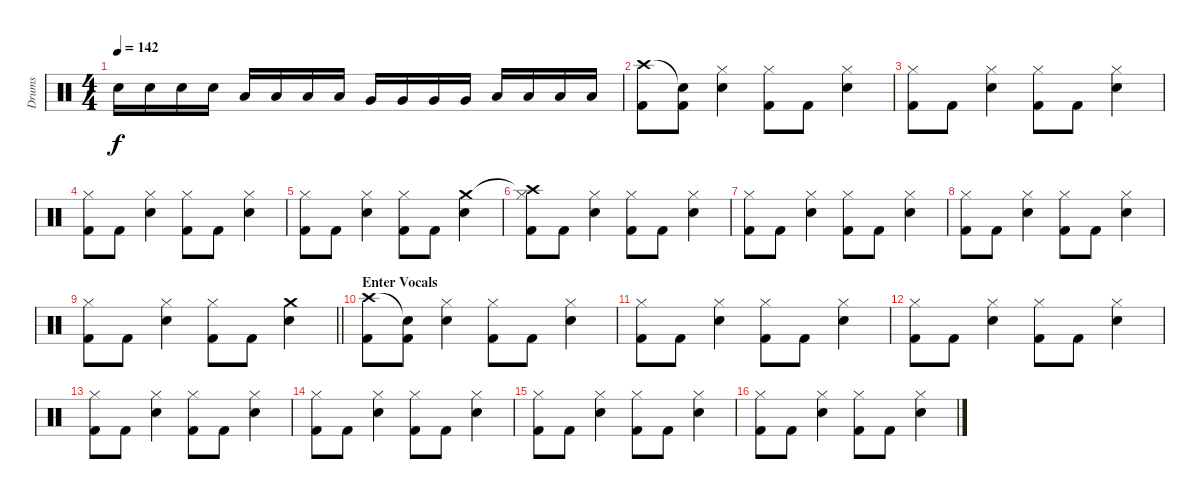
\track ("Drums" "Drums") {instrument percussion}
\staff {score}
\articulation defaults
\ts (4 4)
\tempo 142
\clef neutral
\ks c "Snare (hit) 2".16{dy f volume 12} "Snare (hit) 2".16 "Snare (hit) 2".16 "Snare (hit) 2".16 "Low Tom (hit)".16 "Low Tom (hit)".16 "Low Tom (hit)".16 "Low Tom (hit)".16 "Very Low Tom (hit)".16 "Very Low Tom (hit)".16 "Very Low Tom (hit)".16 "Very Low Tom (hit)".16 "Low Floor Tom (hit)".16 "Low Floor Tom (hit)".16 "Low Floor Tom (hit)".16 "Low Floor Tom (hit)".16
|
("Crash high (hit)" "Kick (hit) 2").8 ("Snare (hit)"{t} "Kick (hit) 2").8 ("Hi-Hat (closed)" "Snare (hit) 2").4 ("Hi-Hat (closed)" "Kick (hit) 2").8 "Kick (hit) 2".8 ("Hi-Hat (closed)" "Snare (hit) 2").4 |
("Hi-Hat (closed)" "Kick (hit) 2").8 "Kick (hit) 2".8 ("Hi-Hat (closed)" "Snare (hit) 2").4 ("Hi-Hat (closed)" "Kick (hit) 2").8 "Kick (hit) 2".8 ("Hi-Hat (closed)" "Snare (hit) 2").4 |
("Hi-Hat (closed)" "Kick (hit) 2").8 "Kick (hit) 2".8 ("Hi-Hat (closed)" "Snare (hit) 2").4 ("Hi-Hat (closed)" "Kick (hit) 2").8 "Kick (hit) 2".8 ("Hi-Hat (closed)" "Snare (hit) 2").4 |
("Hi-Hat (closed)" "Kick (hit) 2").8 "Kick (hit) 2".8 ("Hi-Hat (closed)" "Snare (hit) 2").4 ("Hi-Hat (closed)" "Kick (hit) 2").8 "Kick (hit) 2".8 ("Crash medium (hit)" "Snare (hit) 2").4 |
("Crash high (hit)"{t} "Hi-Hat (closed)" "Kick (hit) 2").8 "Kick (hit) 2".8 ("Hi-Hat (closed)" "Snare (hit) 2").4 ("Hi-Hat (closed)" "Kick (hit) 2").8 "Kick (hit) 2".8 ("Hi-Hat (closed)" "Snare (hit) 2").4 |
("Hi-Hat (closed)" "Kick (hit) 2").8 "Kick (hit) 2".8 ("Hi-Hat (closed)" "Snare (hit) 2").4 ("Hi-Hat (closed)" "Kick (hit) 2").8 "Kick (hit) 2".8 ("Hi-Hat (closed)" "Snare (hit) 2").4 |
("Hi-Hat (closed)" "Kick (hit) 2").8 "Kick (hit) 2".8 ("Hi-Hat (closed)" "Snare (hit) 2").4 ("Hi-Hat (closed)" "Kick (hit) 2").8 "Kick (hit) 2".8 ("Hi-Hat (closed)" "Snare (hit) 2").4 |
\barLineRight lightlight
("Hi-Hat (closed)" "Kick (hit) 2").8 "Kick (hit) 2".8 ("Hi-Hat (closed)" "Snare (hit) 2").4 ("Hi-Hat (closed)" "Kick (hit) 2").8 "Kick (hit) 2".8 ("Crash medium (hit)" "Snare (hit) 2").4 |
\section ("" "Enter Vocals")
("Crash high (hit)" "Kick (hit) 2").8 ("Snare (hit)"{t} "Kick (hit) 2").8 ("Hi-Hat (closed)" "Snare (hit) 2").4 ("Hi-Hat (closed)" "Kick (hit) 2").8 "Kick (hit) 2".8 ("Hi-Hat (closed)" "Snare (hit) 2").4 |
("Hi-Hat (closed)" "Kick (hit) 2").8 "Kick (hit) 2".8 ("Hi-Hat (closed)" "Snare (hit) 2").4 ("Hi-Hat (closed)" "Kick (hit) 2").8 "Kick (hit) 2".8 ("Hi-Hat (closed)" "Snare (hit) 2").4 |
("Hi-Hat (closed)" "Kick (hit) 2").8 "Kick (hit) 2".8 ("Hi-Hat (closed)" "Snare (hit) 2").4 ("Hi-Hat (closed)" "Kick (hit) 2").8 "Kick (hit) 2".8 ("Hi-Hat (closed)" "Snare (hit) 2").4 |
("Hi-Hat (closed)" "Kick (hit) 2").8 "Kick (hit) 2".8 ("Hi-Hat (closed)" "Snare (hit) 2").4 ("Hi-Hat (closed)" "Kick (hit) 2").8 "Kick (hit) 2".8 ("Hi-Hat (closed)" "Snare (hit) 2").4 |
("Hi-Hat (closed)" "Kick (hit) 2").8 "Kick (hit) 2".8 ("Hi-Hat (closed)" "Snare (hit) 2").4 ("Hi-Hat (closed)" "Kick (hit) 2").8 "Kick (hit) 2".8 ("Hi-Hat (closed)" "Snare (hit) 2").4 |
("Hi-Hat (closed)" "Kick (hit) 2").8 "Kick (hit) 2".8 ("Hi-Hat (closed)" "Snare (hit) 2").4 ("Hi-Hat (closed)" "Kick (hit) 2").8 "Kick (hit) 2".8 ("Hi-Hat (closed)" "Snare (hit) 2").4 |
("Hi-Hat (closed)" "Kick (hit) 2").8 "Kick (hit) 2".8 ("Hi-Hat (closed)" "Snare (hit) 2").4 ("Hi-Hat (closed)" "Kick (hit) 2").8 "Kick (hit) 2".8 ("Hi-Hat (closed)" "Snare (hit) 2").4
